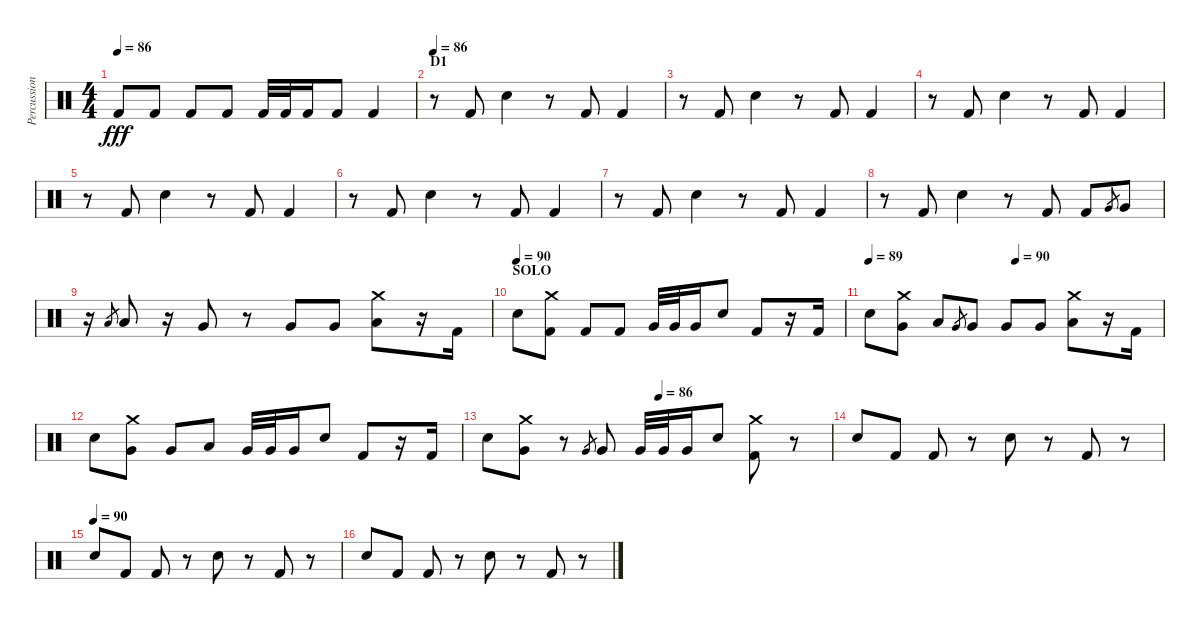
\track ("Percussion" "Percussion") {instrument percussion}
\staff {score}
\articulation defaults
\ts (4 4)
\tempo 86
\clef neutral
\ks c "Kick (hit) 2".8{dy fff} "Kick (hit) 2".8 "Kick (hit) 2".8 "Kick (hit) 2".8 "Kick (hit) 2".32 "Kick (hit) 2".32 "Kick (hit) 2".16 "Kick (hit) 2".8 "Kick (hit) 2".4
|
\section ("" "D1")
\tempo 86
r.8 "Kick (hit) 2".8 "Electric Snare (hit)".4 r.8 "Kick (hit) 2".8 "Kick (hit) 2".4 |
r.8 "Kick (hit) 2".8 "Electric Snare (hit)".4 r.8 "Kick (hit) 2".8 "Kick (hit) 2".4 |
r.8 "Kick (hit) 2".8 "Electric Snare (hit)".4 r.8 "Kick (hit) 2".8 "Kick (hit) 2".4 |
r.8 "Kick (hit) 2".8 "Electric Snare (hit)".4 r.8 "Kick (hit) 2".8 "Kick (hit) 2".4 |
r.8 "Kick (hit) 2".8 "Electric Snare (hit)".4 r.8 "Kick (hit) 2".8 "Kick (hit) 2".4 |
r.8 "Kick (hit) 2".8 "Electric Snare (hit)".4 r.8 "Kick (hit) 2".8 "Kick (hit) 2".4 |
r.8 "Kick (hit) 2".8 "Electric Snare (hit)".4 r.8 "Kick (hit) 2".8 "Kick (hit) 2".8 "Very Low Tom (hit)".8{gr} "Very Low Tom (hit)".8 |
r.16 "Low Tom (hit)".8{gr} "Low Tom (hit)".8 r.16 "Very Low Tom (hit)".8 r.8 "Very Low Tom (hit)".8 "Very Low Tom (hit)".8 ("Low Tom (hit)" "Crash medium (hit)").8 r.16 "Kick (hit) 2".16 |
\section ("" "SOLO")
\tempo (90)
"Electric Snare (hit)".8 ("Kick (hit) 2" "Crash medium (hit)").8 "Kick (hit) 2".8 "Kick (hit) 2".8 "Very Low Tom (hit)".32 "Very Low Tom (hit)".32 "Very Low Tom (hit)".16 "Electric Snare (hit)".8 "Kick (hit) 2".8 r.16 "Kick (hit) 2".16 |
\tempo 89
\tempo (90 0.5)
"Electric Snare (hit)".8 ("Very Low Tom (hit)" "Crash medium (hit)").8 "Low Tom (hit)".8 "Very Low Tom (hit)".8{gr} "Very Low Tom (hit)".8 "Very Low Tom (hit)".8 "Very Low Tom (hit)".8 ("Low Tom (hit)" "Crash medium (hit)").8 r.16 "Kick (hit) 2".16 |
"Electric Snare (hit)".8 ("Very Low Tom (hit)" "Crash medium (hit)").8 "Very Low Tom (hit)".8 "Low Tom (hit)".8 "Very Low Tom (hit)".32 "Very Low Tom (hit)".32 "Very Low Tom (hit)".16 "Electric Snare (hit)".8 "Kick (hit) 2".8 r.16 "Kick (hit) 2".16 |
\tempo (86 0.5)
"Electric Snare (hit)".8 ("Very Low Tom (hit)" "Crash medium (hit)").8 r.8 "Very Low Tom (hit)".8{gr} "Very Low Tom (hit)".8 "Very Low Tom (hit)".32 "Very Low Tom (hit)".32 "Very Low Tom (hit)".16 "Electric Snare (hit)".8 ("Kick (hit) 2" "Crash medium (hit)").8 r.8 |
"Electric Snare (hit)".8 "Kick (hit) 2".8 "Kick (hit) 2".8 r.8 "Electric Snare (hit)".8 r.8 "Kick (hit) 2".8 r.8 |
\tempo (90)
"Electric Snare (hit)".8 "Kick (hit) 2".8 "Kick (hit) 2".8 r.8 "Electric Snare (hit)".8 r.8 "Kick (hit) 2".8 r.8 |
"Electric Snare (hit)".8 "Kick (hit) 2".8 "Kick (hit) 2".8 r.8 "Electric Snare (hit)".8 r.8 "Kick (hit) 2".8 r.8
